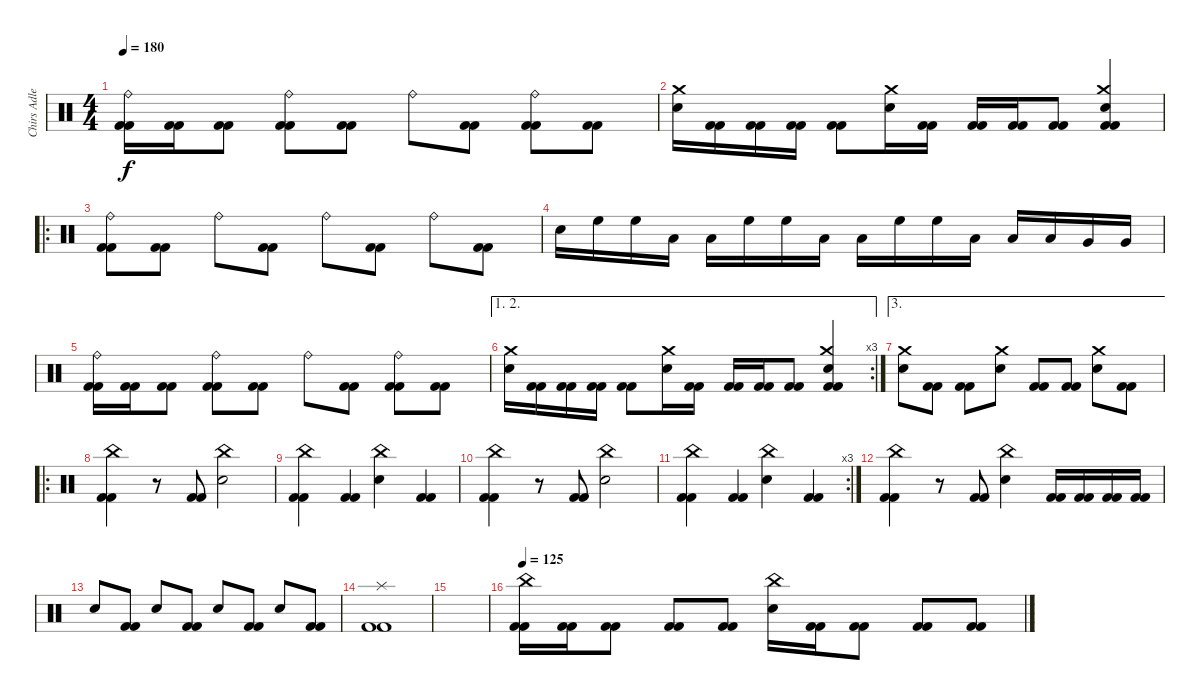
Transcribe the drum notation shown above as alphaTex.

\track ("Chirs Adler" "Chirs Adle") {instrument percussion}
\staff {score}
\articulation defaults
\ts (4 4)
\tempo 180
\clef neutral
\ks c
("Ride (bell)" "Kick (hit) 2" "Kick (hit) 2").16{dy f} ("Kick (hit) 2" "Kick (hit) 2").16 ("Kick (hit) 2" "Kick (hit) 2").8 ("Ride (bell)" "Kick (hit) 2" "Kick (hit) 2").8 ("Kick (hit) 2" "Kick (hit) 2").8 "Ride (bell)".8 ("Kick (hit) 2" "Kick (hit) 2").8 ("Ride (bell)" "Kick (hit) 2" "Kick (hit) 2").8 ("Kick (hit) 2" "Kick (hit) 2").8 |
("Crash medium (hit)" "Electric Snare (hit)").16 ("Kick (hit) 2" "Kick (hit) 2").16 ("Kick (hit) 2" "Kick (hit) 2").16 ("Kick (hit) 2" "Kick (hit) 2").16 ("Kick (hit) 2" "Kick (hit) 2").8 ("Crash medium (hit)" "Electric Snare (hit)").16 ("Kick (hit) 2" "Kick (hit) 2").16 ("Kick (hit) 2" "Kick (hit) 2").16 ("Kick (hit) 2" "Kick (hit) 2").16 ("Kick (hit) 2" "Kick (hit) 2").8 ("Crash medium (hit)" "Electric Snare (hit)" "Kick (hit) 2" "Kick (hit) 2").4 |
\ro
("Ride (bell)" "Kick (hit) 2" "Kick (hit) 2").8 ("Kick (hit) 2" "Kick (hit) 2").8 "Ride (bell)".8 ("Kick (hit) 2" "Kick (hit) 2").8 "Ride (bell)".8 ("Kick (hit) 2" "Kick (hit) 2").8 "Ride (bell)".8 ("Kick (hit) 2" "Kick (hit) 2").8 |
"Electric Snare (hit)".16 "High Floor Tom (hit)".16 "High Floor Tom (hit)".16 "Low Tom (hit)".16 "Low Tom (hit)".16 "High Floor Tom (hit)".16 "High Floor Tom (hit)".16 "Low Tom (hit)".16 "Low Tom (hit)".16 "High Floor Tom (hit)".16 "High Floor Tom (hit)".16 "Low Tom (hit)".16 "Low Tom (hit)".16 "Low Tom (hit)".16 "Very Low Tom (hit)".16 "Very Low Tom (hit)".16 |
("Ride (bell)" "Kick (hit) 2" "Kick (hit) 2").16 ("Kick (hit) 2" "Kick (hit) 2").16 ("Kick (hit) 2" "Kick (hit) 2").8 ("Ride (bell)" "Kick (hit) 2" "Kick (hit) 2").8 ("Kick (hit) 2" "Kick (hit) 2").8 "Ride (bell)".8 ("Kick (hit) 2" "Kick (hit) 2").8 ("Ride (bell)" "Kick (hit) 2" "Kick (hit) 2").8 ("Kick (hit) 2" "Kick (hit) 2").8 |
\ae (1 2)
\rc 3
("Crash medium (hit)" "Electric Snare (hit)").16 ("Kick (hit) 2" "Kick (hit) 2").16 ("Kick (hit) 2" "Kick (hit) 2").16 ("Kick (hit) 2" "Kick (hit) 2").16 ("Kick (hit) 2" "Kick (hit) 2").8 ("Crash medium (hit)" "Electric Snare (hit)").16 ("Kick (hit) 2" "Kick (hit) 2").16 ("Kick (hit) 2" "Kick (hit) 2").16 ("Kick (hit) 2" "Kick (hit) 2").16 ("Kick (hit) 2" "Kick (hit) 2").8 ("Crash medium (hit)" "Electric Snare (hit)" "Kick (hit) 2" "Kick (hit) 2").4 |
\ae 3
("Crash medium (hit)" "Electric Snare (hit)").8 ("Kick (hit) 2" "Kick (hit) 2").8 ("Kick (hit) 2" "Kick (hit) 2").8 ("Crash medium (hit)" "Electric Snare (hit)").8 ("Kick (hit) 2" "Kick (hit) 2").8 ("Kick (hit) 2" "Kick (hit) 2").8 ("Crash medium (hit)" "Electric Snare (hit)").8 ("Kick (hit) 2" "Kick (hit) 2").8 |
\ro
\section ("" "")
("China (hit)" "Kick (hit) 2" "Kick (hit) 2").4 r.8 ("Kick (hit) 2" "Kick (hit) 2").8 ("China (hit)" "Electric Snare (hit)").2 |
("China (hit)" "Kick (hit) 2" "Kick (hit) 2").4 ("Kick (hit) 2" "Kick (hit) 2").4 ("China (hit)" "Electric Snare (hit)").4 ("Kick (hit) 2" "Kick (hit) 2").4 |
("China (hit)" "Kick (hit) 2" "Kick (hit) 2").4 r.8 ("Kick (hit) 2" "Kick (hit) 2").8 ("China (hit)" "Electric Snare (hit)").2 |
\rc 3
("China (hit)" "Kick (hit) 2" "Kick (hit) 2").4 ("Kick (hit) 2" "Kick (hit) 2").4 ("China (hit)" "Electric Snare (hit)").4 ("Kick (hit) 2" "Kick (hit) 2").4 |
("China (hit)" "Kick (hit) 2" "Kick (hit) 2").4 r.8 ("Kick (hit) 2" "Kick (hit) 2").8 ("China (hit)" "Electric Snare (hit)").4 ("Kick (hit) 2" "Kick (hit) 2").16 ("Kick (hit) 2" "Kick (hit) 2").16 ("Kick (hit) 2" "Kick (hit) 2").16 ("Kick (hit) 2" "Kick (hit) 2").16 |
"Electric Snare (hit)".8 ("Kick (hit) 2" "Kick (hit) 2").8 "Electric Snare (hit)".8 ("Kick (hit) 2" "Kick (hit) 2").8 "Electric Snare (hit)".8 ("Kick (hit) 2" "Kick (hit) 2").8 "Electric Snare (hit)".8 ("Kick (hit) 2" "Kick (hit) 2").8 |
("Splash (hit)" "Kick (hit) 2" "Kick (hit) 2").1 |
|
\section ("" "")
\tempo 125
("China (hit)" "Kick (hit) 2" "Kick (hit) 2").16 ("Kick (hit) 2" "Kick (hit) 2").16 ("Kick (hit) 2" "Kick (hit) 2").8 ("Kick (hit) 2" "Kick (hit) 2").8 ("Kick (hit) 2" "Kick (hit) 2").8 ("China (hit)" "Electric Snare (hit)").16 ("Kick (hit) 2" "Kick (hit) 2").16 ("Kick (hit) 2" "Kick (hit) 2").8 ("Kick (hit) 2" "Kick (hit) 2").8 ("Kick (hit) 2" "Kick (hit) 2").8
